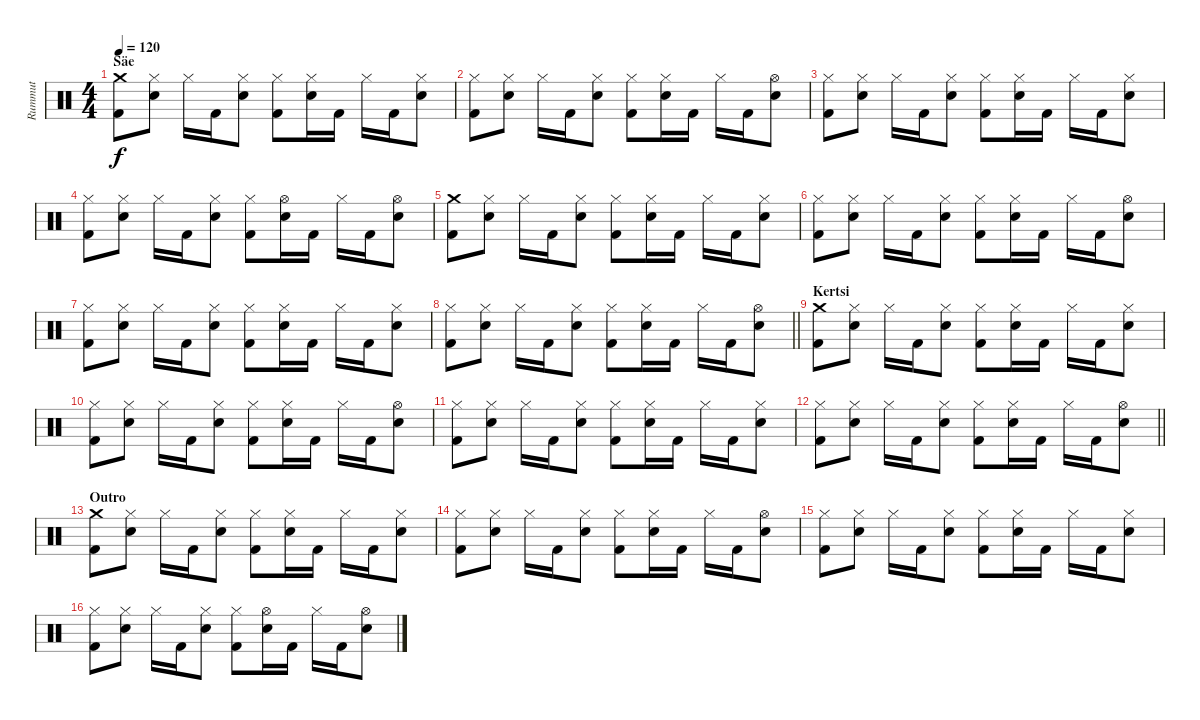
\track ("Rummut" "Rummut") {instrument percussion}
\staff {score}
\articulation defaults
\ts (4 4)
\section ("" "Säe")
\tempo 120
\clef neutral
\ks c
("Crash medium (hit)" "Kick (hit) 2").8{dy f} ("Hi-Hat (closed)" "Snare (hit) 2").8 "Hi-Hat (closed)".16 "Kick (hit) 2".16 ("Hi-Hat (closed)" "Snare (hit) 2").8 ("Hi-Hat (closed)" "Kick (hit) 2").8 ("Hi-Hat (closed)" "Snare (hit) 2").16 "Kick (hit) 2".16 "Hi-Hat (closed)".16 "Kick (hit) 2".16 ("Hi-Hat (closed)" "Snare (hit) 2").8 |
("Hi-Hat (closed)" "Kick (hit) 2").8 ("Hi-Hat (closed)" "Snare (hit) 2").8 "Hi-Hat (closed)".16 "Kick (hit) 2".16 ("Hi-Hat (closed)" "Snare (hit) 2").8 ("Hi-Hat (closed)" "Kick (hit) 2").8 ("Hi-Hat (closed)" "Snare (hit) 2").16 "Kick (hit) 2".16 "Hi-Hat (closed)".16 "Kick (hit) 2".16 ("Hi-Hat (open)" "Snare (hit) 2").8 |
("Hi-Hat (closed)" "Kick (hit) 2").8 ("Hi-Hat (closed)" "Snare (hit) 2").8 "Hi-Hat (closed)".16 "Kick (hit) 2".16 ("Hi-Hat (closed)" "Snare (hit) 2").8 ("Hi-Hat (closed)" "Kick (hit) 2").8 ("Hi-Hat (closed)" "Snare (hit) 2").16 "Kick (hit) 2".16 "Hi-Hat (closed)".16 "Kick (hit) 2".16 ("Hi-Hat (closed)" "Snare (hit) 2").8 |
("Hi-Hat (closed)" "Kick (hit) 2").8 ("Hi-Hat (closed)" "Snare (hit) 2").8 "Hi-Hat (closed)".16 "Kick (hit) 2".16 ("Hi-Hat (closed)" "Snare (hit) 2").8 ("Hi-Hat (closed)" "Kick (hit) 2").8 ("Hi-Hat (open)" "Snare (hit) 2").16 "Kick (hit) 2".16 "Hi-Hat (closed)".16 "Kick (hit) 2".16 ("Hi-Hat (open)" "Snare (hit) 2").8 |
("Crash medium (hit)" "Kick (hit) 2").8 ("Hi-Hat (closed)" "Snare (hit) 2").8 "Hi-Hat (closed)".16 "Kick (hit) 2".16 ("Hi-Hat (closed)" "Snare (hit) 2").8 ("Hi-Hat (closed)" "Kick (hit) 2").8 ("Hi-Hat (closed)" "Snare (hit) 2").16 "Kick (hit) 2".16 "Hi-Hat (closed)".16 "Kick (hit) 2".16 ("Hi-Hat (closed)" "Snare (hit) 2").8 |
("Hi-Hat (closed)" "Kick (hit) 2").8 ("Hi-Hat (closed)" "Snare (hit) 2").8 "Hi-Hat (closed)".16 "Kick (hit) 2".16 ("Hi-Hat (closed)" "Snare (hit) 2").8 ("Hi-Hat (closed)" "Kick (hit) 2").8 ("Hi-Hat (closed)" "Snare (hit) 2").16 "Kick (hit) 2".16 "Hi-Hat (closed)".16 "Kick (hit) 2".16 ("Hi-Hat (open)" "Snare (hit) 2").8 |
("Hi-Hat (closed)" "Kick (hit) 2").8 ("Hi-Hat (closed)" "Snare (hit) 2").8 "Hi-Hat (closed)".16 "Kick (hit) 2".16 ("Hi-Hat (closed)" "Snare (hit) 2").8 ("Hi-Hat (closed)" "Kick (hit) 2").8 ("Hi-Hat (closed)" "Snare (hit) 2").16 "Kick (hit) 2".16 "Hi-Hat (closed)".16 "Kick (hit) 2".16 ("Hi-Hat (closed)" "Snare (hit) 2").8 |
\barLineRight lightlight
("Hi-Hat (closed)" "Kick (hit) 2").8 ("Hi-Hat (closed)" "Snare (hit) 2").8 "Hi-Hat (closed)".16 "Kick (hit) 2".16 ("Hi-Hat (closed)" "Snare (hit) 2").8 ("Hi-Hat (closed)" "Kick (hit) 2").8 ("Hi-Hat (closed)" "Snare (hit) 2").16 "Kick (hit) 2".16 "Hi-Hat (closed)".16 "Kick (hit) 2".16 ("Hi-Hat (open)" "Snare (hit) 2").8 |
\section ("" "Kertsi")
("Crash medium (hit)" "Kick (hit) 2").8 ("Hi-Hat (closed)" "Snare (hit) 2").8 "Hi-Hat (closed)".16 "Kick (hit) 2".16 ("Hi-Hat (closed)" "Snare (hit) 2").8 ("Hi-Hat (closed)" "Kick (hit) 2").8 ("Hi-Hat (closed)" "Snare (hit) 2").16 "Kick (hit) 2".16 "Hi-Hat (closed)".16 "Kick (hit) 2".16 ("Hi-Hat (closed)" "Snare (hit) 2").8 |
("Hi-Hat (closed)" "Kick (hit) 2").8 ("Hi-Hat (closed)" "Snare (hit) 2").8 "Hi-Hat (closed)".16 "Kick (hit) 2".16 ("Hi-Hat (closed)" "Snare (hit) 2").8 ("Hi-Hat (closed)" "Kick (hit) 2").8 ("Hi-Hat (closed)" "Snare (hit) 2").16 "Kick (hit) 2".16 "Hi-Hat (closed)".16 "Kick (hit) 2".16 ("Hi-Hat (open)" "Snare (hit) 2").8 |
("Hi-Hat (closed)" "Kick (hit) 2").8 ("Hi-Hat (closed)" "Snare (hit) 2").8 "Hi-Hat (closed)".16 "Kick (hit) 2".16 ("Hi-Hat (closed)" "Snare (hit) 2").8 ("Hi-Hat (closed)" "Kick (hit) 2").8 ("Hi-Hat (closed)" "Snare (hit) 2").16 "Kick (hit) 2".16 "Hi-Hat (closed)".16 "Kick (hit) 2".16 ("Hi-Hat (closed)" "Snare (hit) 2").8 |
\barLineRight lightlight
("Hi-Hat (closed)" "Kick (hit) 2").8 ("Hi-Hat (closed)" "Snare (hit) 2").8 "Hi-Hat (closed)".16 "Kick (hit) 2".16 ("Hi-Hat (closed)" "Snare (hit) 2").8 ("Hi-Hat (closed)" "Kick (hit) 2").8 ("Hi-Hat (closed)" "Snare (hit) 2").16 "Kick (hit) 2".16 "Hi-Hat (closed)".16 "Kick (hit) 2".16 ("Hi-Hat (open)" "Snare (hit) 2").8 |
\section ("" "Outro")
("Crash medium (hit)" "Kick (hit) 2").8 ("Hi-Hat (closed)" "Snare (hit) 2").8 "Hi-Hat (closed)".16 "Kick (hit) 2".16 ("Hi-Hat (closed)" "Snare (hit) 2").8 ("Hi-Hat (closed)" "Kick (hit) 2").8 ("Hi-Hat (closed)" "Snare (hit) 2").16 "Kick (hit) 2".16 "Hi-Hat (closed)".16 "Kick (hit) 2".16 ("Hi-Hat (closed)" "Snare (hit) 2").8 |
("Hi-Hat (closed)" "Kick (hit) 2").8 ("Hi-Hat (closed)" "Snare (hit) 2").8 "Hi-Hat (closed)".16 "Kick (hit) 2".16 ("Hi-Hat (closed)" "Snare (hit) 2").8 ("Hi-Hat (closed)" "Kick (hit) 2").8 ("Hi-Hat (closed)" "Snare (hit) 2").16 "Kick (hit) 2".16 "Hi-Hat (closed)".16 "Kick (hit) 2".16 ("Hi-Hat (open)" "Snare (hit) 2").8 |
("Hi-Hat (closed)" "Kick (hit) 2").8 ("Hi-Hat (closed)" "Snare (hit) 2").8 "Hi-Hat (closed)".16 "Kick (hit) 2".16 ("Hi-Hat (closed)" "Snare (hit) 2").8 ("Hi-Hat (closed)" "Kick (hit) 2").8 ("Hi-Hat (closed)" "Snare (hit) 2").16 "Kick (hit) 2".16 "Hi-Hat (closed)".16 "Kick (hit) 2".16 ("Hi-Hat (closed)" "Snare (hit) 2").8 |
("Hi-Hat (closed)" "Kick (hit) 2").8 ("Hi-Hat (closed)" "Snare (hit) 2").8 "Hi-Hat (closed)".16 "Kick (hit) 2".16 ("Hi-Hat (closed)" "Snare (hit) 2").8 ("Hi-Hat (closed)" "Kick (hit) 2").8 ("Hi-Hat (open)" "Snare (hit) 2").16 "Kick (hit) 2".16 "Hi-Hat (closed)".16 "Kick (hit) 2".16 ("Hi-Hat (open)" "Snare (hit) 2").8
